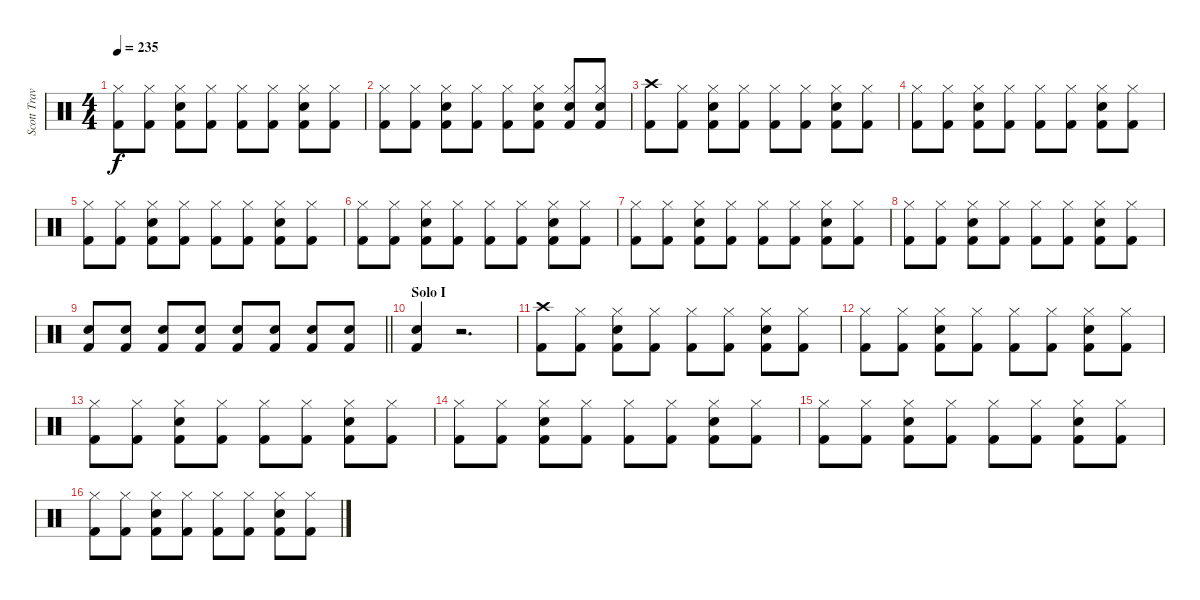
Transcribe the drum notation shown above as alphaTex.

\track ("Scott Travis" "Scott Trav") {instrument percussion}
\staff {score}
\articulation defaults
\ts (4 4)
\tempo 235
\clef neutral
\ks c
("Kick (hit) 2" "Hi-Hat (closed)").8{dy f} ("Kick (hit) 2" "Hi-Hat (closed)").8 ("Kick (hit) 2" "Snare (hit) 2" "Hi-Hat (closed)").8 ("Kick (hit) 2" "Hi-Hat (closed)").8 ("Kick (hit) 2" "Hi-Hat (closed)").8 ("Kick (hit) 2" "Hi-Hat (closed)").8 ("Kick (hit) 2" "Hi-Hat (closed)" "Snare (hit) 2").8 ("Kick (hit) 2" "Hi-Hat (closed)").8 |
("Kick (hit) 2" "Hi-Hat (closed)").8 ("Kick (hit) 2" "Hi-Hat (closed)").8 ("Kick (hit) 2" "Snare (hit) 2" "Hi-Hat (closed)").8 ("Kick (hit) 2" "Hi-Hat (closed)").8 ("Kick (hit) 2" "Hi-Hat (closed)").8 ("Kick (hit) 2" "Hi-Hat (closed)" "Snare (hit) 2").8 ("Kick (hit) 2" "Hi-Hat (closed)" "Snare (hit) 2").8 ("Kick (hit) 2" "Hi-Hat (closed)" "Snare (hit) 2").8 |
("Kick (hit) 2" "Crash high (hit)").8 ("Kick (hit) 2" "Hi-Hat (closed)").8 ("Kick (hit) 2" "Snare (hit) 2" "Hi-Hat (closed)").8 ("Kick (hit) 2" "Hi-Hat (closed)").8 ("Kick (hit) 2" "Hi-Hat (closed)").8 ("Kick (hit) 2" "Hi-Hat (closed)").8 ("Kick (hit) 2" "Hi-Hat (closed)" "Snare (hit) 2").8 ("Kick (hit) 2" "Hi-Hat (closed)").8 |
("Kick (hit) 2" "Hi-Hat (closed)").8 ("Kick (hit) 2" "Hi-Hat (closed)").8 ("Kick (hit) 2" "Snare (hit) 2" "Hi-Hat (closed)").8 ("Kick (hit) 2" "Hi-Hat (closed)").8 ("Kick (hit) 2" "Hi-Hat (closed)").8 ("Kick (hit) 2" "Hi-Hat (closed)").8 ("Kick (hit) 2" "Hi-Hat (closed)" "Snare (hit) 2").8 ("Kick (hit) 2" "Hi-Hat (closed)").8 |
("Kick (hit) 2" "Hi-Hat (closed)").8 ("Kick (hit) 2" "Hi-Hat (closed)").8 ("Kick (hit) 2" "Snare (hit) 2" "Hi-Hat (closed)").8 ("Kick (hit) 2" "Hi-Hat (closed)").8 ("Kick (hit) 2" "Hi-Hat (closed)").8 ("Kick (hit) 2" "Hi-Hat (closed)").8 ("Kick (hit) 2" "Hi-Hat (closed)" "Snare (hit) 2").8 ("Kick (hit) 2" "Hi-Hat (closed)").8 |
("Kick (hit) 2" "Hi-Hat (closed)").8 ("Kick (hit) 2" "Hi-Hat (closed)").8 ("Kick (hit) 2" "Snare (hit) 2" "Hi-Hat (closed)").8 ("Kick (hit) 2" "Hi-Hat (closed)").8 ("Kick (hit) 2" "Hi-Hat (closed)").8 ("Kick (hit) 2" "Hi-Hat (closed)").8 ("Kick (hit) 2" "Hi-Hat (closed)" "Snare (hit) 2").8 ("Kick (hit) 2" "Hi-Hat (closed)").8 |
("Kick (hit) 2" "Hi-Hat (closed)").8 ("Kick (hit) 2" "Hi-Hat (closed)").8 ("Kick (hit) 2" "Snare (hit) 2" "Hi-Hat (closed)").8 ("Kick (hit) 2" "Hi-Hat (closed)").8 ("Kick (hit) 2" "Hi-Hat (closed)").8 ("Kick (hit) 2" "Hi-Hat (closed)").8 ("Kick (hit) 2" "Hi-Hat (closed)" "Snare (hit) 2").8 ("Kick (hit) 2" "Hi-Hat (closed)").8 |
("Kick (hit) 2" "Hi-Hat (closed)").8 ("Kick (hit) 2" "Hi-Hat (closed)").8 ("Kick (hit) 2" "Snare (hit) 2" "Hi-Hat (closed)").8 ("Kick (hit) 2" "Hi-Hat (closed)").8 ("Kick (hit) 2" "Hi-Hat (closed)").8 ("Kick (hit) 2" "Hi-Hat (closed)").8 ("Kick (hit) 2" "Hi-Hat (closed)" "Snare (hit) 2").8 ("Kick (hit) 2" "Hi-Hat (closed)").8 |
\barLineRight lightlight
("Kick (hit) 2" "Snare (hit) 2").8 ("Kick (hit) 2" "Snare (hit) 2").8 ("Kick (hit) 2" "Snare (hit) 2").8 ("Kick (hit) 2" "Snare (hit) 2").8 ("Kick (hit) 2" "Snare (hit) 2").8 ("Kick (hit) 2" "Snare (hit) 2").8 ("Kick (hit) 2" "Snare (hit) 2").8 ("Kick (hit) 2" "Snare (hit) 2").8 |
\section ("" "Solo I")
("Kick (hit) 2" "Snare (hit) 2").4 r.2{d} |
("Kick (hit) 2" "Crash high (hit)").8 ("Kick (hit) 2" "Hi-Hat (closed)").8 ("Kick (hit) 2" "Snare (hit) 2" "Hi-Hat (closed)").8 ("Kick (hit) 2" "Hi-Hat (closed)").8 ("Kick (hit) 2" "Hi-Hat (closed)").8 ("Kick (hit) 2" "Hi-Hat (closed)").8 ("Kick (hit) 2" "Hi-Hat (closed)" "Snare (hit) 2").8 ("Kick (hit) 2" "Hi-Hat (closed)").8 |
("Kick (hit) 2" "Hi-Hat (closed)").8 ("Kick (hit) 2" "Hi-Hat (closed)").8 ("Kick (hit) 2" "Snare (hit) 2" "Hi-Hat (closed)").8 ("Kick (hit) 2" "Hi-Hat (closed)").8 ("Kick (hit) 2" "Hi-Hat (closed)").8 ("Kick (hit) 2" "Hi-Hat (closed)").8 ("Kick (hit) 2" "Hi-Hat (closed)" "Snare (hit) 2").8 ("Kick (hit) 2" "Hi-Hat (closed)").8 |
("Kick (hit) 2" "Hi-Hat (closed)").8 ("Kick (hit) 2" "Hi-Hat (closed)").8 ("Kick (hit) 2" "Snare (hit) 2" "Hi-Hat (closed)").8 ("Kick (hit) 2" "Hi-Hat (closed)").8 ("Kick (hit) 2" "Hi-Hat (closed)").8 ("Kick (hit) 2" "Hi-Hat (closed)").8 ("Kick (hit) 2" "Hi-Hat (closed)" "Snare (hit) 2").8 ("Kick (hit) 2" "Hi-Hat (closed)").8 |
("Kick (hit) 2" "Hi-Hat (closed)").8 ("Kick (hit) 2" "Hi-Hat (closed)").8 ("Kick (hit) 2" "Snare (hit) 2" "Hi-Hat (closed)").8 ("Kick (hit) 2" "Hi-Hat (closed)").8 ("Kick (hit) 2" "Hi-Hat (closed)").8 ("Kick (hit) 2" "Hi-Hat (closed)").8 ("Kick (hit) 2" "Hi-Hat (closed)" "Snare (hit) 2").8 ("Kick (hit) 2" "Hi-Hat (closed)").8 |
("Kick (hit) 2" "Hi-Hat (closed)").8 ("Kick (hit) 2" "Hi-Hat (closed)").8 ("Kick (hit) 2" "Snare (hit) 2" "Hi-Hat (closed)").8 ("Kick (hit) 2" "Hi-Hat (closed)").8 ("Kick (hit) 2" "Hi-Hat (closed)").8 ("Kick (hit) 2" "Hi-Hat (closed)").8 ("Kick (hit) 2" "Hi-Hat (closed)" "Snare (hit) 2").8 ("Kick (hit) 2" "Hi-Hat (closed)").8 |
("Kick (hit) 2" "Hi-Hat (closed)").8 ("Kick (hit) 2" "Hi-Hat (closed)").8 ("Kick (hit) 2" "Snare (hit) 2" "Hi-Hat (closed)").8 ("Kick (hit) 2" "Hi-Hat (closed)").8 ("Kick (hit) 2" "Hi-Hat (closed)").8 ("Kick (hit) 2" "Hi-Hat (closed)").8 ("Kick (hit) 2" "Hi-Hat (closed)" "Snare (hit) 2").8 ("Kick (hit) 2" "Hi-Hat (closed)").8
